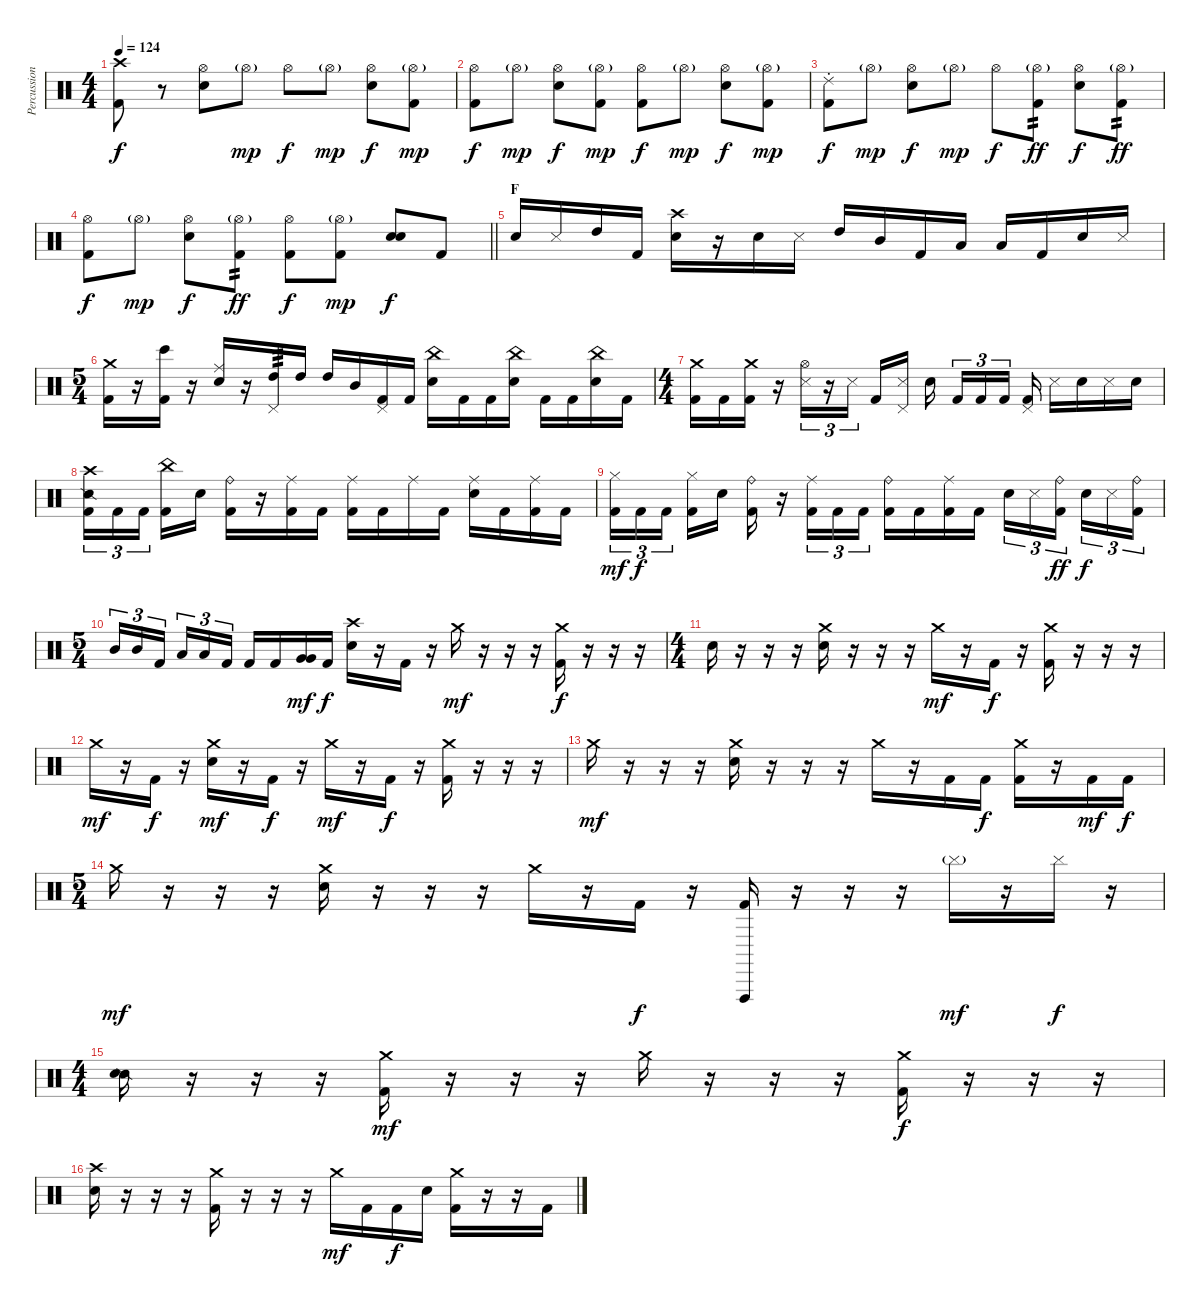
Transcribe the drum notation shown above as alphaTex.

\track ("Percussion" "Percussion") {instrument percussion}
\staff {score}
\articulation defaults
\ts (4 4)
\tempo 124
\clef neutral
\ks c
("Crash high (hit)" "Kick (hit) 2").8{dy f} r.8 ("Hi-Hat (open)" "Snare (hit) 2").8 "Hi-Hat (open)"{g}.8{dy mp} "Hi-Hat (open)".8{dy f} "Hi-Hat (open)"{g}.8{dy mp} ("Hi-Hat (open)" "Snare (hit) 2").8{dy f} ("Hi-Hat (open)"{g} "Kick (hit) 2").8{dy mp} |
("Hi-Hat (open)" "Kick (hit) 2").8{dy f} "Hi-Hat (open)"{g}.8{dy mp} ("Hi-Hat (open)" "Snare (hit) 2").8{dy f} ("Hi-Hat (open)"{g} "Kick (hit) 2").8{dy mp} ("Hi-Hat (open)" "Kick (hit) 2").8{dy f} "Hi-Hat (open)"{g}.8{dy mp} ("Hi-Hat (open)" "Snare (hit) 2").8{dy f} ("Hi-Hat (open)"{g} "Kick (hit) 2").8{dy mp} |
("Ride (choke) 2" "Kick (hit) 2").8{dy f} "Hi-Hat (open)"{g}.8{dy mp} ("Hi-Hat (open)" "Snare (hit) 2").8{dy f} "Hi-Hat (open)"{g}.8{dy mp} "Hi-Hat (open)".8{dy f} ("Hi-Hat (open)"{g} "Kick (hit) 2").8{tp 2 dy ff} ("Hi-Hat (open)" "Snare (hit) 2").8{dy f} ("Hi-Hat (open)"{g} "Kick (hit) 2").8{tp 2 dy ff} |
\barLineRight lightlight
("Hi-Hat (open)" "Kick (hit) 2").8{dy f} "Hi-Hat (open)"{g}.8{dy mp} ("Hi-Hat (open)" "Snare (hit) 2").8{dy f} ("Hi-Hat (open)"{g} "Kick (hit) 2").8{tp 2 dy ff} ("Hi-Hat (open)" "Kick (hit) 2").8{dy f} ("Hi-Hat (open)"{g} "Kick (hit) 2").8{dy mp} ("Snare (hit)" "Snare (hit) 2").8{dy f} "Kick (hit) 2".8 |
\section ("" "F")
"Snare (hit) 2".16 "Metronome (hit)".16 "High Tom (hit)".16 "Kick (hit) 2".16 ("Crash high (hit)" "Snare (hit) 2").16 r.16 "Snare (hit) 2".16 "Metronome (hit)".16 "High Tom (hit)".16 "Mid Tom (hit)".16 "Kick (hit) 2".16 "Low Tom (hit)".16 "Low Tom (hit)".16 "Kick (hit) 2".16 "Snare (hit) 2".16 "Metronome (hit)".16 |
\ts (5 4)
("Crash medium (hit)" "Kick (hit) 2").16 r.16 ("Bongo High (hit)" "Kick (hit) 2").16 r.16 ("Ride (middle)" "Snare (hit) 2").16 r.16 ("Pedal Hi-Hat (hit)" "High Tom (hit)").16{tp 3} "High Tom (hit)".16 "High Tom (hit)".16 "Mid Tom (hit)".16 ("Pedal Hi-Hat (hit)" "Kick (hit) 2").16 "Kick (hit) 2".16 ("China (hit)" "Snare (hit) 2").16 "Kick (hit) 2".16 "Kick (hit) 2".16 ("China (hit)" "Snare (hit) 2").16 "Kick (hit) 2".16 "Kick (hit) 2".16 ("China (hit)" "Snare (hit) 2").16 "Kick (hit) 2".16 |
\ts (4 4)
("Crash medium (hit)" "Kick (hit) 2").16 "Kick (hit) 2".16 ("Crash medium (hit)" "Kick (hit) 2").16 r.16 ("Hi-Hat (open)" "Metronome (hit)").16{tu (3 2)} r.16{tu (3 2)} "Metronome (hit)".16{tu (3 2) beam splitsecondary} "Kick (hit) 2".16 ("Pedal Hi-Hat (hit)" "Metronome (hit)").16 "Snare (hit) 2".16{beam splitsecondary} "Kick (hit) 2".16{tu (3 2)} "Kick (hit) 2".16{tu (3 2)} "Kick (hit) 2".16{tu (3 2) beam splitsecondary} ("Pedal Hi-Hat (hit)" "Kick (hit) 2").16 "Metronome (hit)".16 "Snare (hit) 2".16 "Metronome (hit)".16 "Snare (hit) 2".16 |
("Crash high (hit)" "Snare (side stick) 2" "Kick (hit) 2").16{tu (3 2)} "Kick (hit) 2".16{tu (3 2)} "Kick (hit) 2".16{tu (3 2) beam splitsecondary} ("China (hit)" "Kick (hit) 2").16 "Snare (hit) 2".16 ("Ride (bell)" "Kick (hit) 2").16 r.16 ("Ride (middle)" "Kick (hit) 2").16 "Kick (hit) 2".16 ("Ride (middle)" "Kick (hit) 2").16 "Kick (hit) 2".16 "Ride (middle)".16 "Kick (hit) 2".16 ("Ride (middle)" "Snare (hit) 2").16 "Kick (hit) 2".16 ("Ride (middle)" "Kick (hit) 2").16 "Kick (hit) 2".16 |
("Hi-Hat (closed)" "Kick (hit) 2").16{tu (3 2) dy mf} "Kick (hit) 2".16{tu (3 2) dy f} "Kick (hit) 2".16{tu (3 2) beam splitsecondary} ("Hi-Hat (closed)" "Kick (hit) 2").16 "Snare (hit) 2".16 ("Ride (bell)" "Kick (hit) 2").16 r.16 ("Ride (middle)" "Kick (hit) 2").16{tu (3 2)} "Kick (hit) 2".16{tu (3 2)} "Kick (hit) 2".16{tu (3 2)} ("Ride (bell)" "Kick (hit) 2").16 "Kick (hit) 2".16 ("Ride (middle)" "Kick (hit) 2").16 "Kick (hit) 2".16 "Snare (hit) 2".16{tu (3 2)} "Metronome (hit)".16{tu (3 2)} ("Ride (bell)" "Kick (hit) 2").16{tu (3 2) dy ff beam splitsecondary} "Snare (hit) 2".16{tu (3 2) dy f} "Metronome (hit)".16{tu (3 2)} ("Ride (bell)" "Kick (hit) 2").16{tu (3 2)} |
\ts (5 4)
"Mid Tom (hit)".16{tu (3 2)} "Mid Tom (hit)".16{tu (3 2)} "Kick (hit) 2".16{tu (3 2) beam splitsecondary} "Low Tom (hit)".16{tu (3 2)} "Low Tom (hit)".16{tu (3 2)} "Kick (hit) 2".16{tu (3 2)} "Kick (hit) 2".16 "Kick (hit) 2".16 ("Very Low Tom (hit)" "Very Low Tom (hit)").16{bu 60 dy mf} "Kick (hit) 2".16{dy f} ("Crash high (hit)" "Snare (hit) 2").16 r.16 "Kick (hit) 2".16 r.16 "Crash medium (hit)".16{dy mf} r.16 r.16 r.16 ("Crash medium (hit)" "Kick (hit) 2").16{dy f} r.16 r.16 r.16 |
\ts (4 4)
"Snare (hit)".16 r.16 r.16 r.16 ("Crash medium (hit)" "Snare (hit) 2").16 r.16 r.16 r.16 "Crash medium (hit)".16{dy mf} r.16 "Kick (hit) 2".16{dy f} r.16 ("Crash medium (hit)" "Kick (hit) 2").16 r.16 r.16 r.16 |
"Crash medium (hit)".16{dy mf} r.16 "Kick (hit) 2".16{dy f} r.16 ("Crash medium (hit)" "Snare (hit) 2").16{dy mf} r.16 "Kick (hit) 2".16{dy f} r.16 "Crash medium (hit)".16{dy mf} r.16 "Kick (hit) 2".16{dy f} r.16 ("Crash medium (hit)" "Kick (hit) 2").16 r.16 r.16 r.16 |
"Crash medium (hit)".16{dy mf} r.16 r.16 r.16 ("Crash medium (hit)" "Snare (hit) 2").16 r.16 r.16 r.16 "Crash medium (hit)".16 r.16 "Kick (hit) 2".16 "Kick (hit) 2".16{dy f} ("Crash medium (hit)" "Kick (hit) 2").16 r.16 "Kick (hit) 2".16{dy mf} "Kick (hit) 2".16{dy f} |
\ts (5 4)
"Crash medium (hit)".16{dy mf} r.16 r.16 r.16 ("Crash medium (hit)" "Snare (hit) 2").16 r.16 r.16 r.16 "Crash medium (hit)".16 r.16 "Kick (hit) 2".16{dy f} r.16 ("Vibraslap (hit)" "Kick (hit) 2").16 r.16 r.16 r.16 "Cymbal (hit)"{g}.16{dy mf} r.16 "Cymbal (hit)".16{dy f} r.16 |
\ts (4 4)
("Snare (side stick) 2" "Snare (hit) 2").16 r.16 r.16 r.16 ("Crash medium (hit)" "Kick (hit) 2").16{dy mf} r.16 r.16 r.16 "Crash medium (hit)".16 r.16 r.16 r.16 ("Crash medium (hit)" "Kick (hit) 2").16{dy f} r.16 r.16 r.16 |
("Crash high (hit)" "Snare (hit) 2").16 r.16 r.16 r.16 ("Crash medium (hit)" "Kick (hit) 2").16 r.16 r.16 r.16 "Crash medium (hit)".16{dy mf} "Kick (hit) 2".16 "Kick (hit) 2".16{dy f} "Snare (hit) 2".16 ("Crash medium (hit)" "Kick (hit) 2").16 r.16 r.16 "Kick (hit) 2".16
